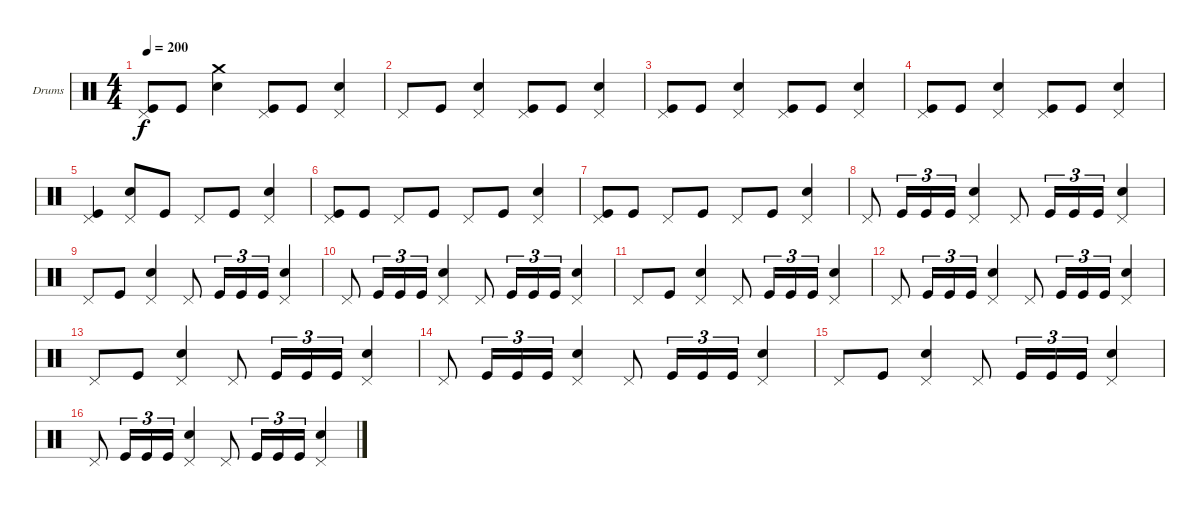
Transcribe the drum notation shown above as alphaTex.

\bracketExtendMode groupsimilarinstruments
\firstSystemTrackNameOrientation horizontal
\otherSystemsTrackNameOrientation horizontal
\track ("Drumkit" "Drums") {instrument percussion}
\staff {score}
\articulation defaults
\ts (4 4)
\tempo 200
\clef neutral
\ks c
("Pedal Hi-Hat (hit)" "Kick (hit)").8{dy f} "Kick (hit)".8 ("Crash medium (hit)" "Snare (hit) 2").4 ("Pedal Hi-Hat (hit)" "Kick (hit)").8 "Kick (hit)".8 ("Pedal Hi-Hat (hit)" "Snare (hit) 2").4 |
"Pedal Hi-Hat (hit)".8 "Kick (hit)".8 ("Pedal Hi-Hat (hit)" "Snare (hit) 2").4 ("Pedal Hi-Hat (hit)" "Kick (hit)").8 "Kick (hit)".8 ("Pedal Hi-Hat (hit)" "Snare (hit) 2").4 |
("Pedal Hi-Hat (hit)" "Kick (hit)").8 "Kick (hit)".8 ("Pedal Hi-Hat (hit)" "Snare (hit) 2").4 ("Pedal Hi-Hat (hit)" "Kick (hit)").8 "Kick (hit)".8 ("Pedal Hi-Hat (hit)" "Snare (hit) 2").4 |
("Pedal Hi-Hat (hit)" "Kick (hit)").8 "Kick (hit)".8 ("Pedal Hi-Hat (hit)" "Snare (hit) 2").4 ("Pedal Hi-Hat (hit)" "Kick (hit)").8 "Kick (hit)".8 ("Pedal Hi-Hat (hit)" "Snare (hit) 2").4 |
("Pedal Hi-Hat (hit)" "Kick (hit)").4 ("Pedal Hi-Hat (hit)" "Snare (hit) 2").8 "Kick (hit)".8 "Pedal Hi-Hat (hit)".8 "Kick (hit)".8 ("Pedal Hi-Hat (hit)" "Snare (hit) 2").4 |
("Pedal Hi-Hat (hit)" "Kick (hit)").8 "Kick (hit)".8 "Pedal Hi-Hat (hit)".8 "Kick (hit)".8 "Pedal Hi-Hat (hit)".8 "Kick (hit)".8 ("Pedal Hi-Hat (hit)" "Snare (hit) 2").4 |
("Pedal Hi-Hat (hit)" "Kick (hit)").8 "Kick (hit)".8 "Pedal Hi-Hat (hit)".8 "Kick (hit)".8 "Pedal Hi-Hat (hit)".8 "Kick (hit)".8 ("Pedal Hi-Hat (hit)" "Snare (hit) 2").4 |
"Pedal Hi-Hat (hit)".8 "Kick (hit)".16{tu (3 2)} "Kick (hit)".16{tu (3 2)} "Kick (hit)".16{tu (3 2)} ("Pedal Hi-Hat (hit)" "Snare (hit) 2").4 "Pedal Hi-Hat (hit)".8 "Kick (hit)".16{tu (3 2)} "Kick (hit)".16{tu (3 2)} "Kick (hit)".16{tu (3 2)} ("Pedal Hi-Hat (hit)" "Snare (hit) 2").4 |
"Pedal Hi-Hat (hit)".8 "Kick (hit)".8 ("Pedal Hi-Hat (hit)" "Snare (hit) 2").4 "Pedal Hi-Hat (hit)".8 "Kick (hit)".16{tu (3 2)} "Kick (hit)".16{tu (3 2)} "Kick (hit)".16{tu (3 2)} ("Pedal Hi-Hat (hit)" "Snare (hit) 2").4 |
"Pedal Hi-Hat (hit)".8 "Kick (hit)".16{tu (3 2)} "Kick (hit)".16{tu (3 2)} "Kick (hit)".16{tu (3 2)} ("Pedal Hi-Hat (hit)" "Snare (hit) 2").4 "Pedal Hi-Hat (hit)".8 "Kick (hit)".16{tu (3 2)} "Kick (hit)".16{tu (3 2)} "Kick (hit)".16{tu (3 2)} ("Pedal Hi-Hat (hit)" "Snare (hit) 2").4 |
"Pedal Hi-Hat (hit)".8 "Kick (hit)".8 ("Pedal Hi-Hat (hit)" "Snare (hit) 2").4 "Pedal Hi-Hat (hit)".8 "Kick (hit)".16{tu (3 2)} "Kick (hit)".16{tu (3 2)} "Kick (hit)".16{tu (3 2)} ("Pedal Hi-Hat (hit)" "Snare (hit) 2").4 |
"Pedal Hi-Hat (hit)".8 "Kick (hit)".16{tu (3 2)} "Kick (hit)".16{tu (3 2)} "Kick (hit)".16{tu (3 2)} ("Pedal Hi-Hat (hit)" "Snare (hit) 2").4 "Pedal Hi-Hat (hit)".8 "Kick (hit)".16{tu (3 2)} "Kick (hit)".16{tu (3 2)} "Kick (hit)".16{tu (3 2)} ("Pedal Hi-Hat (hit)" "Snare (hit) 2").4 |
"Pedal Hi-Hat (hit)".8 "Kick (hit)".8 ("Pedal Hi-Hat (hit)" "Snare (hit) 2").4 "Pedal Hi-Hat (hit)".8 "Kick (hit)".16{tu (3 2)} "Kick (hit)".16{tu (3 2)} "Kick (hit)".16{tu (3 2)} ("Pedal Hi-Hat (hit)" "Snare (hit) 2").4 |
"Pedal Hi-Hat (hit)".8 "Kick (hit)".16{tu (3 2)} "Kick (hit)".16{tu (3 2)} "Kick (hit)".16{tu (3 2)} ("Pedal Hi-Hat (hit)" "Snare (hit) 2").4 "Pedal Hi-Hat (hit)".8 "Kick (hit)".16{tu (3 2)} "Kick (hit)".16{tu (3 2)} "Kick (hit)".16{tu (3 2)} ("Pedal Hi-Hat (hit)" "Snare (hit) 2").4 |
"Pedal Hi-Hat (hit)".8 "Kick (hit)".8 ("Pedal Hi-Hat (hit)" "Snare (hit) 2").4 "Pedal Hi-Hat (hit)".8 "Kick (hit)".16{tu (3 2)} "Kick (hit)".16{tu (3 2)} "Kick (hit)".16{tu (3 2)} ("Pedal Hi-Hat (hit)" "Snare (hit) 2").4 |
"Pedal Hi-Hat (hit)".8 "Kick (hit)".16{tu (3 2)} "Kick (hit)".16{tu (3 2)} "Kick (hit)".16{tu (3 2)} ("Pedal Hi-Hat (hit)" "Snare (hit) 2").4 "Pedal Hi-Hat (hit)".8 "Kick (hit)".16{tu (3 2)} "Kick (hit)".16{tu (3 2)} "Kick (hit)".16{tu (3 2)} ("Pedal Hi-Hat (hit)" "Snare (hit) 2").4
